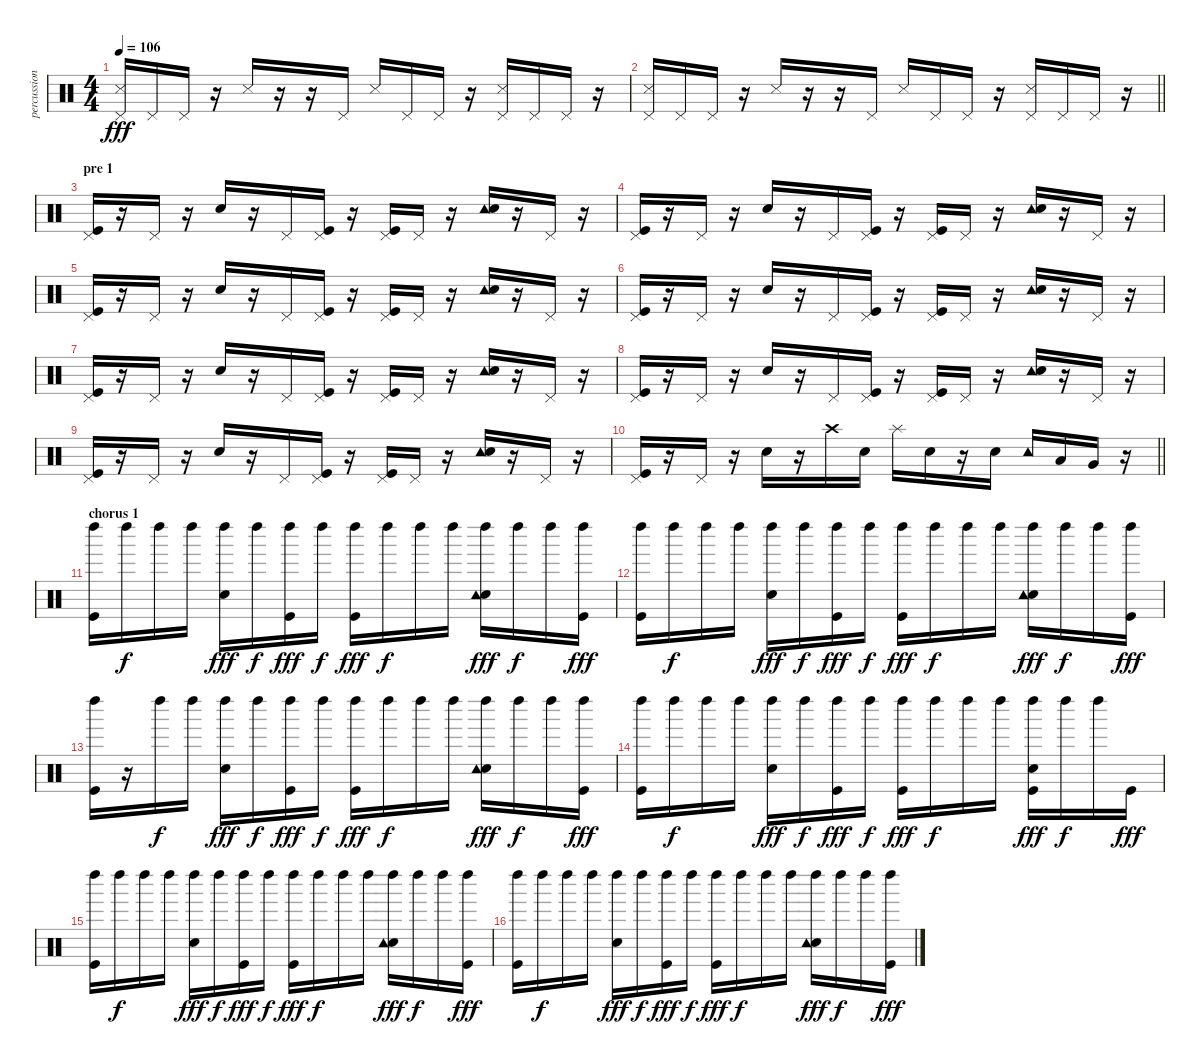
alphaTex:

\track ("percussions" "percussion") {instrument percussion}
\staff {score}
\articulation defaults
\ts (4 4)
\tempo 106
\clef neutral
\ks c
("Pedal Hi-Hat (hit)" "Snare (side stick) 3").16{dy fff} "Pedal Hi-Hat (hit)".16 "Pedal Hi-Hat (hit)".16 r.16 "Snare (side stick) 3".16 r.16 r.16 "Pedal Hi-Hat (hit)".16 "Snare (side stick) 3".16 "Pedal Hi-Hat (hit)".16 "Pedal Hi-Hat (hit)".16 r.16 ("Pedal Hi-Hat (hit)" "Snare (side stick) 3").16 "Pedal Hi-Hat (hit)".16 "Pedal Hi-Hat (hit)".16 r.16 |
\barLineRight lightlight
("Pedal Hi-Hat (hit)" "Snare (side stick) 3").16 "Pedal Hi-Hat (hit)".16 "Pedal Hi-Hat (hit)".16 r.16 "Snare (side stick) 3".16 r.16 r.16 "Pedal Hi-Hat (hit)".16 "Snare (side stick) 3".16 "Pedal Hi-Hat (hit)".16 "Pedal Hi-Hat (hit)".16 r.16 ("Pedal Hi-Hat (hit)" "Snare (side stick) 3").16 "Pedal Hi-Hat (hit)".16 "Pedal Hi-Hat (hit)".16 r.16 |
\section ("" "pre 1")
("Pedal Hi-Hat (hit)" "Kick (hit)").16 r.16 "Pedal Hi-Hat (hit)".16 r.16 "Snare (hit) 2".16 r.16 "Pedal Hi-Hat (hit)".16 ("Pedal Hi-Hat (hit)" "Kick (hit)").16 r.16 ("Pedal Hi-Hat (hit)" "Kick (hit)").16 "Pedal Hi-Hat (hit)".16 r.16 ("Tambourine (hit)" "Snare (hit) 2").16 r.16 "Pedal Hi-Hat (hit)".16 r.16 |
("Pedal Hi-Hat (hit)" "Kick (hit)").16 r.16 "Pedal Hi-Hat (hit)".16 r.16 "Snare (hit) 2".16 r.16 "Pedal Hi-Hat (hit)".16 ("Pedal Hi-Hat (hit)" "Kick (hit)").16 r.16 ("Pedal Hi-Hat (hit)" "Kick (hit)").16 "Pedal Hi-Hat (hit)".16 r.16 ("Tambourine (hit)" "Snare (hit) 2").16 r.16 "Pedal Hi-Hat (hit)".16 r.16 |
("Pedal Hi-Hat (hit)" "Kick (hit)").16 r.16 "Pedal Hi-Hat (hit)".16 r.16 "Snare (hit) 2".16 r.16 "Pedal Hi-Hat (hit)".16 ("Pedal Hi-Hat (hit)" "Kick (hit)").16 r.16 ("Pedal Hi-Hat (hit)" "Kick (hit)").16 "Pedal Hi-Hat (hit)".16 r.16 ("Tambourine (hit)" "Snare (hit) 2").16 r.16 "Pedal Hi-Hat (hit)".16 r.16 |
("Pedal Hi-Hat (hit)" "Kick (hit)").16 r.16 "Pedal Hi-Hat (hit)".16 r.16 "Snare (hit) 2".16 r.16 "Pedal Hi-Hat (hit)".16 ("Pedal Hi-Hat (hit)" "Kick (hit)").16 r.16 ("Pedal Hi-Hat (hit)" "Kick (hit)").16 "Pedal Hi-Hat (hit)".16 r.16 ("Tambourine (hit)" "Snare (hit) 2").16 r.16 "Pedal Hi-Hat (hit)".16 r.16 |
("Pedal Hi-Hat (hit)" "Kick (hit)").16 r.16 "Pedal Hi-Hat (hit)".16 r.16 "Snare (hit) 2".16 r.16 "Pedal Hi-Hat (hit)".16 ("Pedal Hi-Hat (hit)" "Kick (hit)").16 r.16 ("Pedal Hi-Hat (hit)" "Kick (hit)").16 "Pedal Hi-Hat (hit)".16 r.16 ("Tambourine (hit)" "Snare (hit) 2").16 r.16 "Pedal Hi-Hat (hit)".16 r.16 |
("Pedal Hi-Hat (hit)" "Kick (hit)").16 r.16 "Pedal Hi-Hat (hit)".16 r.16 "Snare (hit) 2".16 r.16 "Pedal Hi-Hat (hit)".16 ("Pedal Hi-Hat (hit)" "Kick (hit)").16 r.16 ("Pedal Hi-Hat (hit)" "Kick (hit)").16 "Pedal Hi-Hat (hit)".16 r.16 ("Tambourine (hit)" "Snare (hit) 2").16 r.16 "Pedal Hi-Hat (hit)".16 r.16 |
("Pedal Hi-Hat (hit)" "Kick (hit)").16 r.16 "Pedal Hi-Hat (hit)".16 r.16 "Snare (hit) 2".16 r.16 "Pedal Hi-Hat (hit)".16 ("Pedal Hi-Hat (hit)" "Kick (hit)").16 r.16 ("Pedal Hi-Hat (hit)" "Kick (hit)").16 "Pedal Hi-Hat (hit)".16 r.16 ("Tambourine (hit)" "Snare (hit) 2").16 r.16 "Pedal Hi-Hat (hit)".16 r.16 |
\barLineRight lightlight
("Pedal Hi-Hat (hit)" "Kick (hit)").16 r.16 "Pedal Hi-Hat (hit)".16 r.16 "Snare (hit) 2".16 r.16 "Crash high (hit)".16 "Snare (hit) 2".16 "Splash (hit)".16 "Snare (hit) 2".16 r.16 "Snare (hit) 2".16 "Tambourine (hit)".16 "Low Tom (hit)".16 "Very Low Tom (hit)".16 r.16 |
\section ("" "chorus 1")
("Left Maraca (hit)" "Kick (hit)").16 "Left Maraca (hit)".16{dy f} "Left Maraca (hit)".16 "Left Maraca (hit)".16 ("Left Maraca (hit)" "Snare (hit) 2").16{dy fff} "Left Maraca (hit)".16{dy f} ("Left Maraca (hit)" "Kick (hit)").16{dy fff} "Left Maraca (hit)".16{dy f} ("Left Maraca (hit)" "Kick (hit)").16{dy fff} "Left Maraca (hit)".16{dy f} "Left Maraca (hit)".16 "Left Maraca (hit)".16 ("Left Maraca (hit)" "Snare (hit) 2" "Tambourine (hit)").16{dy fff} "Left Maraca (hit)".16{dy f} "Left Maraca (hit)".16 ("Left Maraca (hit)" "Kick (hit)").16{dy fff} |
("Left Maraca (hit)" "Kick (hit)").16 "Left Maraca (hit)".16{dy f} "Left Maraca (hit)".16 "Left Maraca (hit)".16 ("Left Maraca (hit)" "Snare (hit) 2").16{dy fff} "Left Maraca (hit)".16{dy f} ("Left Maraca (hit)" "Kick (hit)").16{dy fff} "Left Maraca (hit)".16{dy f} ("Left Maraca (hit)" "Kick (hit)").16{dy fff} "Left Maraca (hit)".16{dy f} "Left Maraca (hit)".16 "Left Maraca (hit)".16 ("Left Maraca (hit)" "Snare (hit) 2" "Tambourine (hit)").16{dy fff} "Left Maraca (hit)".16{dy f} "Left Maraca (hit)".16 ("Left Maraca (hit)" "Kick (hit)").16{dy fff} |
("Left Maraca (hit)" "Kick (hit)").16 r.16 "Left Maraca (hit)".16{dy f} "Left Maraca (hit)".16 ("Left Maraca (hit)" "Snare (hit) 2").16{dy fff} "Left Maraca (hit)".16{dy f} ("Left Maraca (hit)" "Kick (hit)").16{dy fff} "Left Maraca (hit)".16{dy f} ("Left Maraca (hit)" "Kick (hit)").16{dy fff} "Left Maraca (hit)".16{dy f} "Left Maraca (hit)".16 "Left Maraca (hit)".16 ("Left Maraca (hit)" "Snare (hit) 2" "Tambourine (hit)").16{dy fff} "Left Maraca (hit)".16{dy f} "Left Maraca (hit)".16 ("Left Maraca (hit)" "Kick (hit)").16{dy fff} |
("Left Maraca (hit)" "Kick (hit)").16 "Left Maraca (hit)".16{dy f} "Left Maraca (hit)".16 "Left Maraca (hit)".16 ("Left Maraca (hit)" "Snare (hit) 2").16{dy fff} "Left Maraca (hit)".16{dy f} ("Left Maraca (hit)" "Kick (hit)").16{dy fff} "Left Maraca (hit)".16{dy f} ("Left Maraca (hit)" "Kick (hit)").16{dy fff} "Left Maraca (hit)".16{dy f} "Left Maraca (hit)".16 "Left Maraca (hit)".16 ("Left Maraca (hit)" "Snare (hit) 2" "Kick (hit)").16{dy fff} "Left Maraca (hit)".16{dy f} "Left Maraca (hit)".16 "Kick (hit)".16{dy fff} |
("Left Maraca (hit)" "Kick (hit)").16 "Left Maraca (hit)".16{dy f} "Left Maraca (hit)".16 "Left Maraca (hit)".16 ("Left Maraca (hit)" "Snare (hit) 2").16{dy fff} "Left Maraca (hit)".16{dy f} ("Left Maraca (hit)" "Kick (hit)").16{dy fff} "Left Maraca (hit)".16{dy f} ("Left Maraca (hit)" "Kick (hit)").16{dy fff} "Left Maraca (hit)".16{dy f} "Left Maraca (hit)".16 "Left Maraca (hit)".16 ("Left Maraca (hit)" "Snare (hit) 2" "Tambourine (hit)").16{dy fff} "Left Maraca (hit)".16{dy f} "Left Maraca (hit)".16 ("Left Maraca (hit)" "Kick (hit)").16{dy fff} |
("Left Maraca (hit)" "Kick (hit)").16 "Left Maraca (hit)".16{dy f} "Left Maraca (hit)".16 "Left Maraca (hit)".16 ("Left Maraca (hit)" "Snare (hit) 2").16{dy fff} "Left Maraca (hit)".16{dy f} ("Left Maraca (hit)" "Kick (hit)").16{dy fff} "Left Maraca (hit)".16{dy f} ("Left Maraca (hit)" "Kick (hit)").16{dy fff} "Left Maraca (hit)".16{dy f} "Left Maraca (hit)".16 "Left Maraca (hit)".16 ("Left Maraca (hit)" "Snare (hit) 2" "Tambourine (hit)").16{dy fff} "Left Maraca (hit)".16{dy f} "Left Maraca (hit)".16 ("Left Maraca (hit)" "Kick (hit)").16{dy fff}
